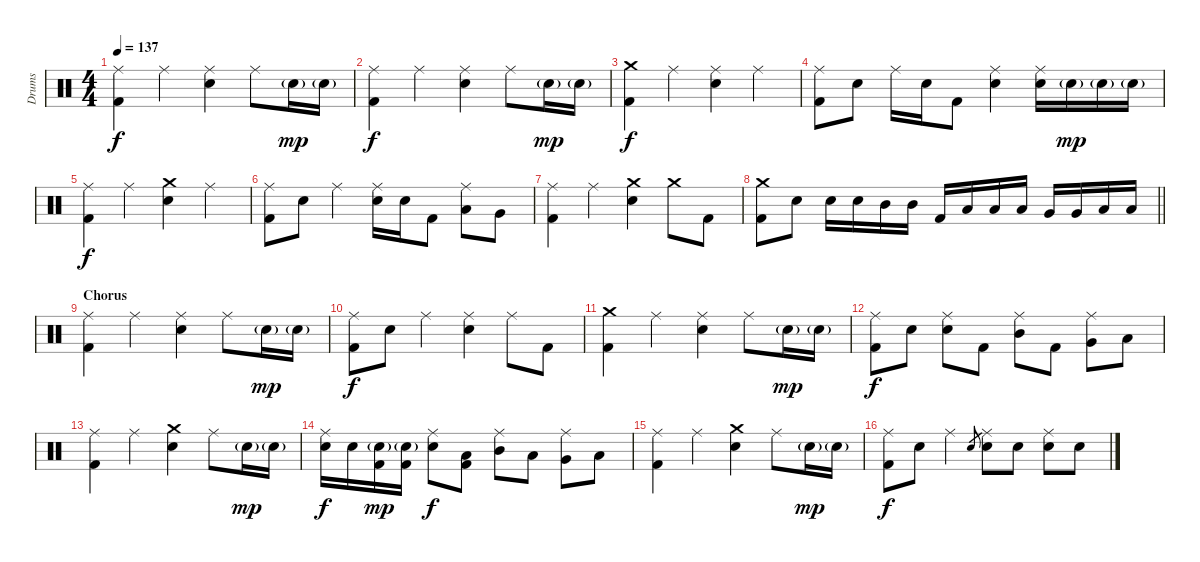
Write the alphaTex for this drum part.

\track ("Drums" "Drums") {instrument percussion}
\staff {score}
\articulation defaults
\ts (4 4)
\tempo 137
\clef neutral
\ks c
("Ride (middle)" "Kick (hit) 2").4{dy f} "Ride (middle)".4 ("Ride (middle)" "Electric Snare (hit)").4 "Ride (middle)".8 "Electric Snare (hit)"{g}.16{dy mp} "Electric Snare (hit)"{g}.16 |
("Ride (middle)" "Kick (hit) 2").4{dy f} "Ride (middle)".4 ("Ride (middle)" "Electric Snare (hit)").4 "Ride (middle)".8 "Electric Snare (hit)"{g}.16{dy mp} "Electric Snare (hit)"{g}.16 |
("Crash medium (hit)" "Kick (hit) 2").4{dy f} "Ride (middle)".4 ("Ride (middle)" "Electric Snare (hit)").4 "Ride (middle)".4 |
("Ride (middle)" "Kick (hit) 2").8 "Electric Snare (hit)".8 "Ride (middle)".16 "Electric Snare (hit)".16 "Kick (hit) 2".8 ("Ride (middle)" "Electric Snare (hit)").4 ("Ride (middle)" "Electric Snare (hit)").16 "Electric Snare (hit)"{g}.16{dy mp} "Electric Snare (hit)"{g}.16 "Electric Snare (hit)"{g}.16 |
("Ride (middle)" "Kick (hit) 2").4{dy f} "Ride (middle)".4 ("Crash medium (hit)" "Electric Snare (hit)").4 "Ride (middle)".4 |
("Ride (middle)" "Kick (hit) 2").8 "Electric Snare (hit)".8 "Ride (middle)".4 ("Ride (middle)" "Electric Snare (hit)").16 "Electric Snare (hit)".16 "Kick (hit) 2".8 ("Ride (middle)" "Low Tom (hit)").8 "Very Low Tom (hit)".8 |
("Ride (middle)" "Kick (hit) 2").4 "Ride (middle)".4 ("Crash medium (hit)" "Electric Snare (hit)").4 "Crash medium (hit)".8 "Kick (hit) 2".8 |
\barLineRight lightlight
("Crash medium (hit)" "Kick (hit) 2").8 "Electric Snare (hit)".8 "Electric Snare (hit)".16 "Electric Snare (hit)".16 "Mid Tom (hit)".16 "Mid Tom (hit)".16 "Kick (hit) 2".16 "Low Tom (hit)".16 "Low Tom (hit)".16 "Low Tom (hit)".16 "Very Low Tom (hit)".16 "Very Low Tom (hit)".16 "Low Floor Tom (hit)".16 "Low Floor Tom (hit)".16 |
\section ("" "Chorus")
("Ride (middle)" "Kick (hit) 2").4 "Ride (middle)".4 ("Ride (middle)" "Electric Snare (hit)").4 "Ride (middle)".8 "Electric Snare (hit)"{g}.16{dy mp} "Electric Snare (hit)"{g}.16 |
("Ride (middle)" "Kick (hit) 2").8{dy f} "Electric Snare (hit)".8 "Ride (middle)".4 ("Ride (middle)" "Electric Snare (hit)").4 "Ride (middle)".8 "Kick (hit) 2".8 |
("Crash medium (hit)" "Kick (hit) 2").4 "Ride (middle)".4 ("Ride (middle)" "Electric Snare (hit)").4 "Ride (middle)".8 "Electric Snare (hit)"{g}.16{dy mp} "Electric Snare (hit)"{g}.16 |
("Ride (middle)" "Kick (hit) 2").8{dy f} "Electric Snare (hit)".8 ("Ride (middle)" "Electric Snare (hit)").8 "Kick (hit) 2".8 ("Ride (middle)" "Mid Tom (hit)").8 "Kick (hit) 2".8 ("Ride (middle)" "Very Low Tom (hit)").8 "Low Floor Tom (hit)".8 |
("Ride (middle)" "Kick (hit) 2").4 "Ride (middle)".4 ("Crash medium (hit)" "Electric Snare (hit)").4 "Ride (middle)".8 "Electric Snare (hit)"{g}.16{dy mp} "Electric Snare (hit)"{g}.16 |
("Ride (middle)" "Electric Snare (hit)").16{dy f} "Electric Snare (hit)".16 ("Electric Snare (hit)"{g} "Kick (hit) 2").16{dy mp} ("Electric Snare (hit)"{g} "Kick (hit) 2").16 ("Ride (middle)" "Electric Snare (hit)").8{dy f} ("Low Tom (hit)" "Kick (hit) 2").8 ("Ride (middle)" "Mid Tom (hit)").8 "Low Tom (hit)".8 ("Ride (middle)" "Very Low Tom (hit)").8 "Low Floor Tom (hit)".8 |
("Ride (middle)" "Kick (hit) 2").4 "Ride (middle)".4 ("Crash medium (hit)" "Electric Snare (hit)").4 "Ride (middle)".8 "Electric Snare (hit)"{g}.16{dy mp} "Electric Snare (hit)"{g}.16 |
("Ride (middle)" "Kick (hit) 2").8{dy f} "Electric Snare (hit)".8 "Ride (middle)".4 "Electric Snare (hit)".8{gr} ("Ride (middle)" "Electric Snare (hit)").8 "Electric Snare (hit)".8 ("Ride (middle)" "Electric Snare (hit)").8 "Electric Snare (hit)".8
